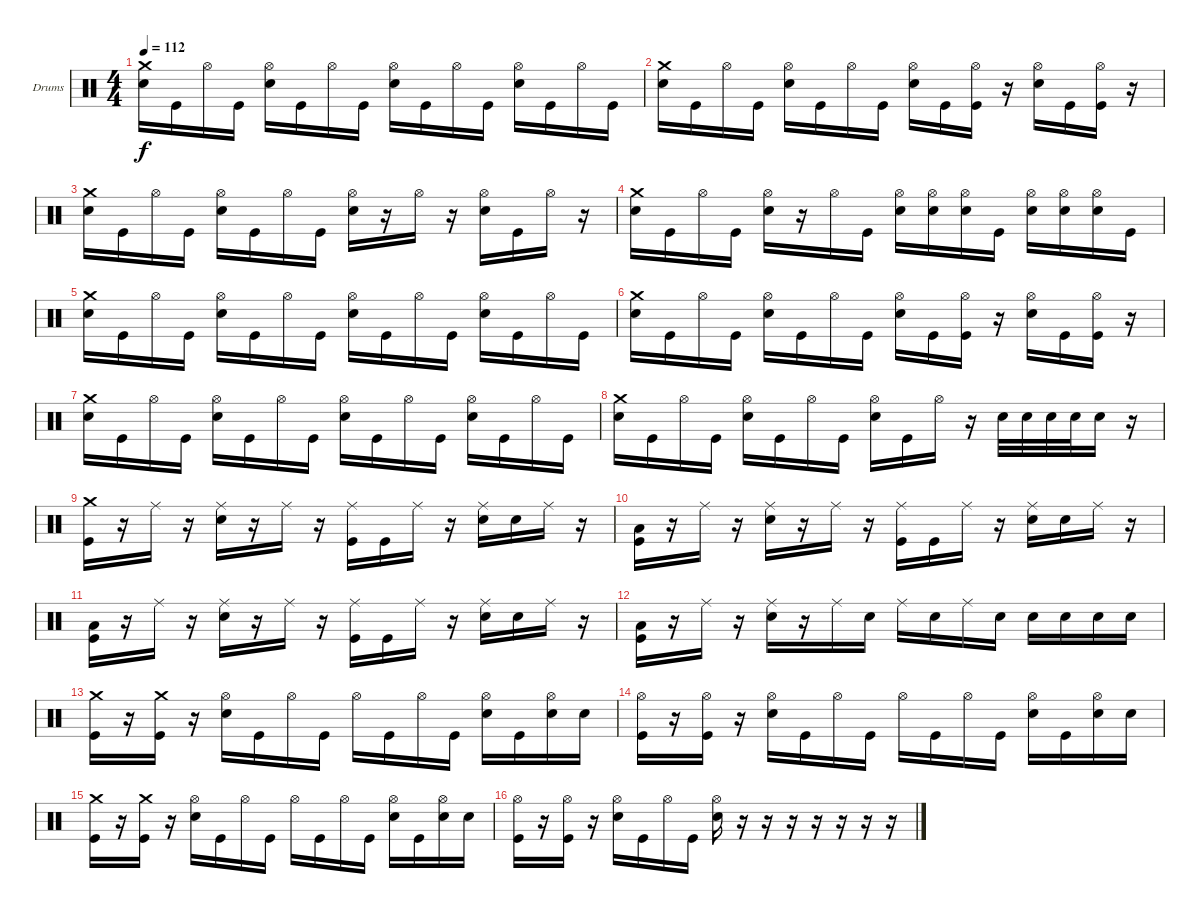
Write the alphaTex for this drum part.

\bracketExtendMode groupsimilarinstruments
\firstSystemTrackNameOrientation horizontal
\otherSystemsTrackNameOrientation horizontal
\track ("Drumkit" "Drums") {instrument percussion}
\staff {score}
\articulation defaults
\ts (4 4)
\tempo 112
\clef neutral
\ks c
("Crash medium (hit)" "Snare (hit) 2").16{dy f} "Kick (hit)".16 "Hi-Hat (open)".16 "Kick (hit)".16 ("Hi-Hat (open)" "Snare (hit) 2").16 "Kick (hit)".16 "Hi-Hat (open)".16 "Kick (hit)".16 ("Hi-Hat (open)" "Snare (hit) 2").16 "Kick (hit)".16 "Hi-Hat (open)".16 "Kick (hit)".16 ("Hi-Hat (open)" "Snare (hit) 2").16 "Kick (hit)".16 "Hi-Hat (open)".16 "Kick (hit)".16 |
("Crash medium (hit)" "Snare (hit) 2").16 "Kick (hit)".16 "Hi-Hat (open)".16 "Kick (hit)".16 ("Hi-Hat (open)" "Snare (hit) 2").16 "Kick (hit)".16 "Hi-Hat (open)".16 "Kick (hit)".16 ("Hi-Hat (open)" "Snare (hit) 2").16 "Kick (hit)".16 ("Hi-Hat (open)" "Kick (hit)").16 r.16 ("Hi-Hat (open)" "Snare (hit) 2").16 "Kick (hit)".16 ("Hi-Hat (open)" "Kick (hit)").16 r.16 |
("Crash medium (hit)" "Snare (hit) 2").16 "Kick (hit)".16 "Hi-Hat (open)".16 "Kick (hit)".16 ("Hi-Hat (open)" "Snare (hit) 2").16 "Kick (hit)".16 "Hi-Hat (open)".16 "Kick (hit)".16 ("Hi-Hat (open)" "Snare (hit) 2").16 r.16 "Hi-Hat (open)".16 r.16 ("Hi-Hat (open)" "Snare (hit) 2").16 "Kick (hit)".16 "Hi-Hat (open)".16 r.16 |
("Crash medium (hit)" "Snare (hit) 2").16 "Kick (hit)".16 "Hi-Hat (open)".16 "Kick (hit)".16 ("Hi-Hat (open)" "Snare (hit) 2").16 r.16 "Hi-Hat (open)".16 "Kick (hit)".16 ("Hi-Hat (open)" "Snare (hit) 2").16 ("Hi-Hat (open)" "Snare (hit) 2").16 ("Hi-Hat (open)" "Snare (hit) 2").16 "Kick (hit)".16 ("Hi-Hat (open)" "Snare (hit) 2").16 ("Hi-Hat (open)" "Snare (hit) 2").16 ("Hi-Hat (open)" "Snare (hit) 2").16 "Kick (hit)".16 |
("Crash medium (hit)" "Snare (hit) 2").16 "Kick (hit)".16 "Hi-Hat (open)".16 "Kick (hit)".16 ("Hi-Hat (open)" "Snare (hit) 2").16 "Kick (hit)".16 "Hi-Hat (open)".16 "Kick (hit)".16 ("Hi-Hat (open)" "Snare (hit) 2").16 "Kick (hit)".16 "Hi-Hat (open)".16 "Kick (hit)".16 ("Hi-Hat (open)" "Snare (hit) 2").16 "Kick (hit)".16 "Hi-Hat (open)".16 "Kick (hit)".16 |
("Crash medium (hit)" "Snare (hit) 2").16 "Kick (hit)".16 "Hi-Hat (open)".16 "Kick (hit)".16 ("Hi-Hat (open)" "Snare (hit) 2").16 "Kick (hit)".16 "Hi-Hat (open)".16 "Kick (hit)".16 ("Hi-Hat (open)" "Snare (hit) 2").16 "Kick (hit)".16 ("Hi-Hat (open)" "Kick (hit)").16 r.16 ("Hi-Hat (open)" "Snare (hit) 2").16 "Kick (hit)".16 ("Hi-Hat (open)" "Kick (hit)").16 r.16 |
("Crash medium (hit)" "Snare (hit) 2").16 "Kick (hit)".16 "Hi-Hat (open)".16 "Kick (hit)".16 ("Hi-Hat (open)" "Snare (hit) 2").16 "Kick (hit)".16 "Hi-Hat (open)".16 "Kick (hit)".16 ("Hi-Hat (open)" "Snare (hit) 2").16 "Kick (hit)".16 "Hi-Hat (open)".16 "Kick (hit)".16 ("Hi-Hat (open)" "Snare (hit) 2").16 "Kick (hit)".16 "Hi-Hat (open)".16 "Kick (hit)".16 |
("Crash medium (hit)" "Snare (hit) 2").16 "Kick (hit)".16 "Hi-Hat (open)".16 "Kick (hit)".16 ("Hi-Hat (open)" "Snare (hit) 2").16 "Kick (hit)".16 "Hi-Hat (open)".16 "Kick (hit)".16 ("Hi-Hat (open)" "Snare (hit) 2").16 "Kick (hit)".16 "Hi-Hat (open)".16 r.16 "Snare (hit) 2".32 "Snare (hit) 2".32 "Snare (hit) 2".32 "Snare (hit) 2".32 "Snare (hit) 2".16 r.16 |
("Crash medium (hit)" "Kick (hit)").16 r.16 "Ride (middle)".16 r.16 ("Ride (middle)" "Snare (hit) 2").16 r.16 "Ride (middle)".16 r.16 ("Ride (middle)" "Kick (hit)").16 "Kick (hit)".16 "Ride (middle)".16 r.16 ("Ride (middle)" "Snare (hit) 2").16 "Snare (hit) 2".16 "Ride (middle)".16 r.16 |
("Low Tom (hit)" "Kick (hit)").16 r.16 "Ride (middle)".16 r.16 ("Ride (middle)" "Snare (hit) 2").16 r.16 "Ride (middle)".16 r.16 ("Ride (middle)" "Kick (hit)").16 "Kick (hit)".16 "Ride (middle)".16 r.16 ("Ride (middle)" "Snare (hit) 2").16 "Snare (hit) 2".16 "Ride (middle)".16 r.16 |
("Low Tom (hit)" "Kick (hit)").16 r.16 "Ride (middle)".16 r.16 ("Ride (middle)" "Snare (hit) 2").16 r.16 "Ride (middle)".16 r.16 ("Ride (middle)" "Kick (hit)").16 "Kick (hit)".16 "Ride (middle)".16 r.16 ("Ride (middle)" "Snare (hit) 2").16 "Snare (hit) 2".16 "Ride (middle)".16 r.16 |
("Low Tom (hit)" "Kick (hit)").16 r.16 "Ride (middle)".16 r.16 ("Ride (middle)" "Snare (hit) 2").16 r.16 "Ride (middle)".16 "Snare (hit) 2".16 "Ride (middle)".16 "Snare (hit) 2".16 "Ride (middle)".16 "Snare (hit) 2".16 "Snare (hit) 2".16 "Snare (hit) 2".16 "Snare (hit) 2".16 "Snare (hit) 2".16 |
("Crash medium (hit)" "Kick (hit)").16 r.16 ("Crash medium (hit)" "Kick (hit)").16 r.16 ("Hi-Hat (open)" "Snare (hit) 2").16 "Kick (hit)".16 "Hi-Hat (open)".16 "Kick (hit)".16 "Hi-Hat (open)".16 "Kick (hit)".16 "Hi-Hat (open)".16 "Kick (hit)".16 ("Hi-Hat (open)" "Snare (hit) 2").16 "Kick (hit)".16 ("Hi-Hat (open)" "Snare (hit) 2").16 "Snare (hit) 2".16 |
("Hi-Hat (open)" "Kick (hit)").16 r.16 ("Hi-Hat (open)" "Kick (hit)").16 r.16 ("Hi-Hat (open)" "Snare (hit) 2").16 "Kick (hit)".16 "Hi-Hat (open)".16 "Kick (hit)".16 "Hi-Hat (open)".16 "Kick (hit)".16 "Hi-Hat (open)".16 "Kick (hit)".16 ("Hi-Hat (open)" "Snare (hit) 2").16 "Kick (hit)".16 ("Hi-Hat (open)" "Snare (hit) 2").16 "Snare (hit) 2".16 |
("Crash medium (hit)" "Kick (hit)").16 r.16 ("Crash medium (hit)" "Kick (hit)").16 r.16 ("Hi-Hat (open)" "Snare (hit) 2").16 "Kick (hit)".16 "Hi-Hat (open)".16 "Kick (hit)".16 "Hi-Hat (open)".16 "Kick (hit)".16 "Hi-Hat (open)".16 "Kick (hit)".16 ("Hi-Hat (open)" "Snare (hit) 2").16 "Kick (hit)".16 ("Hi-Hat (open)" "Snare (hit) 2").16 "Snare (hit) 2".16 |
("Hi-Hat (open)" "Kick (hit)").16 r.16 ("Hi-Hat (open)" "Kick (hit)").16 r.16 ("Hi-Hat (open)" "Snare (hit) 2").16 "Kick (hit)".16 "Hi-Hat (open)".16 "Kick (hit)".16 ("Hi-Hat (open)" "Snare (hit) 2").16 r.16 r.16 r.16 r.16 r.16 r.16 r.16
